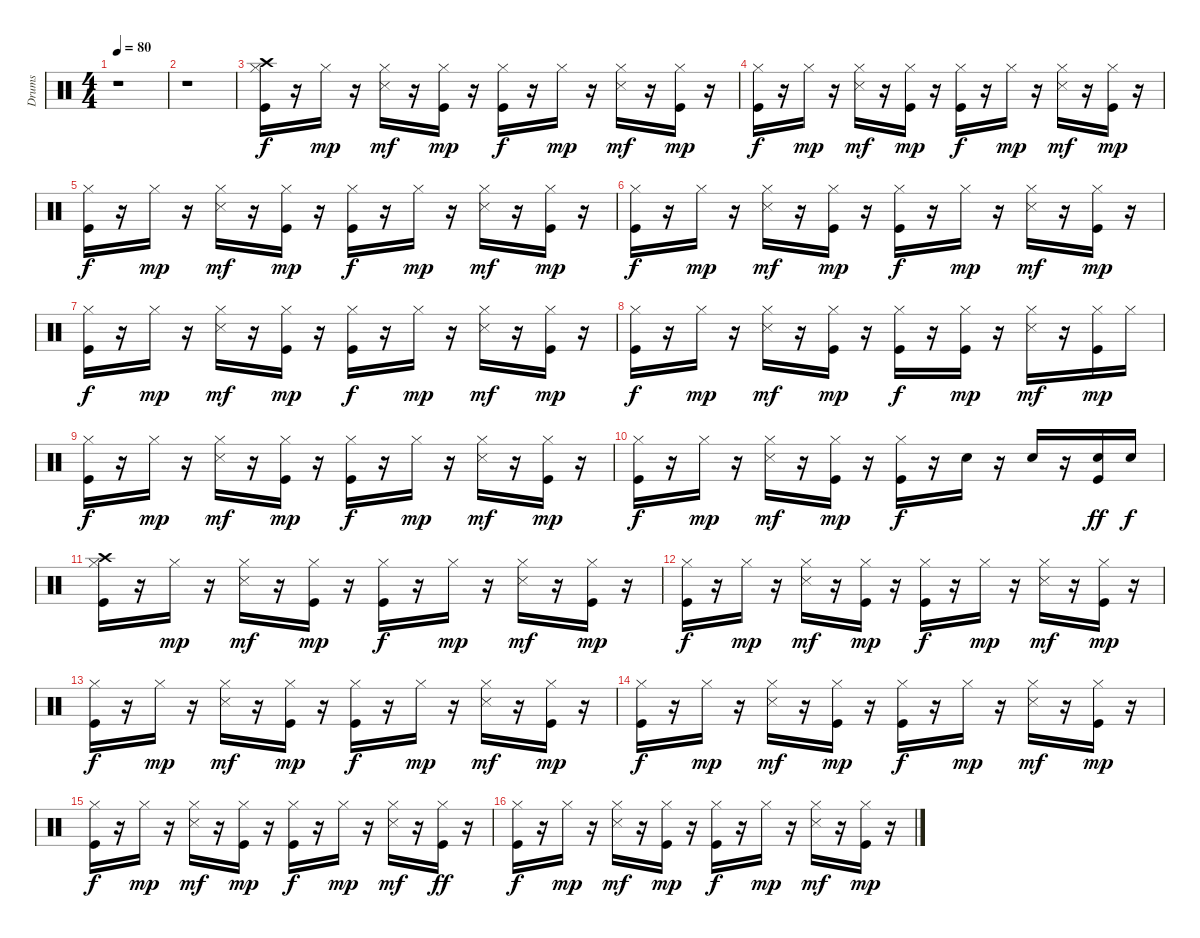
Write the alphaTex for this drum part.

\track ("Drums  " "Drums  ") {instrument percussion}
\staff {score}
\articulation defaults
\ts (4 4)
\tempo 80
\clef neutral
\ks c
r.1{dy f} |
r.1 |
("Kick (hit)" "Hi-Hat (closed)" "Crash high (hit)").16 r.16 "Hi-Hat (closed)".16{dy mp} r.16 ("Hi-Hat (closed)" "Snare (side stick) 3").16{dy mf} r.16 ("Kick (hit)" "Hi-Hat (closed)").16{dy mp} r.16 ("Kick (hit)" "Hi-Hat (closed)").16{dy f} r.16 "Hi-Hat (closed)".16{dy mp} r.16 ("Hi-Hat (closed)" "Snare (side stick) 3").16{dy mf} r.16 ("Kick (hit)" "Hi-Hat (closed)").16{dy mp} r.16 |
("Kick (hit)" "Hi-Hat (closed)").16{dy f} r.16 "Hi-Hat (closed)".16{dy mp} r.16 ("Hi-Hat (closed)" "Snare (side stick) 3").16{dy mf} r.16 ("Kick (hit)" "Hi-Hat (closed)").16{dy mp} r.16 ("Kick (hit)" "Hi-Hat (closed)").16{dy f} r.16 "Hi-Hat (closed)".16{dy mp} r.16 ("Hi-Hat (closed)" "Snare (side stick) 3").16{dy mf} r.16 ("Kick (hit)" "Hi-Hat (closed)").16{dy mp} r.16 |
("Kick (hit)" "Hi-Hat (closed)").16{dy f} r.16 "Hi-Hat (closed)".16{dy mp} r.16 ("Hi-Hat (closed)" "Snare (side stick) 3").16{dy mf} r.16 ("Kick (hit)" "Hi-Hat (closed)").16{dy mp} r.16 ("Kick (hit)" "Hi-Hat (closed)").16{dy f} r.16 "Hi-Hat (closed)".16{dy mp} r.16 ("Hi-Hat (closed)" "Snare (side stick) 3").16{dy mf} r.16 ("Kick (hit)" "Hi-Hat (closed)").16{dy mp} r.16 |
("Kick (hit)" "Hi-Hat (closed)").16{dy f} r.16 "Hi-Hat (closed)".16{dy mp} r.16 ("Hi-Hat (closed)" "Snare (side stick) 3").16{dy mf} r.16 ("Kick (hit)" "Hi-Hat (closed)").16{dy mp} r.16 ("Kick (hit)" "Hi-Hat (closed)").16{dy f} r.16 "Hi-Hat (closed)".16{dy mp} r.16 ("Hi-Hat (closed)" "Snare (side stick) 3").16{dy mf} r.16 ("Kick (hit)" "Hi-Hat (closed)").16{dy mp} r.16 |
("Kick (hit)" "Hi-Hat (closed)").16{dy f} r.16 "Hi-Hat (closed)".16{dy mp} r.16 ("Hi-Hat (closed)" "Snare (side stick) 3").16{dy mf} r.16 ("Kick (hit)" "Hi-Hat (closed)").16{dy mp} r.16 ("Kick (hit)" "Hi-Hat (closed)").16{dy f} r.16 "Hi-Hat (closed)".16{dy mp} r.16 ("Hi-Hat (closed)" "Snare (side stick) 3").16{dy mf} r.16 ("Kick (hit)" "Hi-Hat (closed)").16{dy mp} r.16 |
("Kick (hit)" "Hi-Hat (closed)").16{dy f} r.16 "Hi-Hat (closed)".16{dy mp} r.16 ("Hi-Hat (closed)" "Snare (side stick) 3").16{dy mf} r.16 ("Kick (hit)" "Hi-Hat (closed)").16{dy mp} r.16 ("Kick (hit)" "Hi-Hat (closed)").16{dy f} r.16 ("Kick (hit)" "Hi-Hat (closed)").16{dy mp} r.16 ("Hi-Hat (closed)" "Snare (side stick) 3").16{dy mf} r.16 ("Kick (hit)" "Hi-Hat (closed)").16{dy mp} "Hi-Hat (closed)".16 |
("Kick (hit)" "Hi-Hat (closed)").16{dy f} r.16 "Hi-Hat (closed)".16{dy mp} r.16 ("Hi-Hat (closed)" "Snare (side stick) 3").16{dy mf} r.16 ("Kick (hit)" "Hi-Hat (closed)").16{dy mp} r.16 ("Kick (hit)" "Hi-Hat (closed)").16{dy f} r.16 "Hi-Hat (closed)".16{dy mp} r.16 ("Hi-Hat (closed)" "Snare (side stick) 3").16{dy mf} r.16 ("Kick (hit)" "Hi-Hat (closed)").16{dy mp} r.16 |
("Kick (hit)" "Hi-Hat (closed)").16{dy f} r.16 "Hi-Hat (closed)".16{dy mp} r.16 ("Hi-Hat (closed)" "Snare (side stick) 3").16{dy mf} r.16 ("Kick (hit)" "Hi-Hat (closed)").16{dy mp} r.16 ("Kick (hit)" "Hi-Hat (closed)").16{dy f} r.16 "Snare (hit) 2".16 r.16 "Snare (hit) 2".16 r.16 ("Kick (hit)" "Snare (hit) 2").16{dy ff} "Snare (hit) 2".16{dy f} |
("Kick (hit)" "Hi-Hat (closed)" "Crash high (hit)").16 r.16 "Hi-Hat (closed)".16{dy mp} r.16 ("Hi-Hat (closed)" "Snare (side stick) 3").16{dy mf} r.16 ("Kick (hit)" "Hi-Hat (closed)").16{dy mp} r.16 ("Kick (hit)" "Hi-Hat (closed)").16{dy f} r.16 "Hi-Hat (closed)".16{dy mp} r.16 ("Hi-Hat (closed)" "Snare (side stick) 3").16{dy mf} r.16 ("Kick (hit)" "Hi-Hat (closed)").16{dy mp} r.16 |
("Kick (hit)" "Hi-Hat (closed)").16{dy f} r.16 "Hi-Hat (closed)".16{dy mp} r.16 ("Hi-Hat (closed)" "Snare (side stick) 3").16{dy mf} r.16 ("Kick (hit)" "Hi-Hat (closed)").16{dy mp} r.16 ("Kick (hit)" "Hi-Hat (closed)").16{dy f} r.16 "Hi-Hat (closed)".16{dy mp} r.16 ("Hi-Hat (closed)" "Snare (side stick) 3").16{dy mf} r.16 ("Kick (hit)" "Hi-Hat (closed)").16{dy mp} r.16 |
("Kick (hit)" "Hi-Hat (closed)").16{dy f} r.16 "Hi-Hat (closed)".16{dy mp} r.16 ("Hi-Hat (closed)" "Snare (side stick) 3").16{dy mf} r.16 ("Kick (hit)" "Hi-Hat (closed)").16{dy mp} r.16 ("Kick (hit)" "Hi-Hat (closed)").16{dy f} r.16 "Hi-Hat (closed)".16{dy mp} r.16 ("Hi-Hat (closed)" "Snare (side stick) 3").16{dy mf} r.16 ("Kick (hit)" "Hi-Hat (closed)").16{dy mp} r.16 |
("Kick (hit)" "Hi-Hat (closed)").16{dy f} r.16 "Hi-Hat (closed)".16{dy mp} r.16 ("Hi-Hat (closed)" "Snare (side stick) 3").16{dy mf} r.16 ("Kick (hit)" "Hi-Hat (closed)").16{dy mp} r.16 ("Kick (hit)" "Hi-Hat (closed)").16{dy f} r.16 "Hi-Hat (closed)".16{dy mp} r.16 ("Hi-Hat (closed)" "Snare (side stick) 3").16{dy mf} r.16 ("Kick (hit)" "Hi-Hat (closed)").16{dy mp} r.16 |
("Kick (hit)" "Hi-Hat (closed)").16{dy f} r.16 "Hi-Hat (closed)".16{dy mp} r.16 ("Hi-Hat (closed)" "Snare (side stick) 3").16{dy mf} r.16 ("Kick (hit)" "Hi-Hat (closed)").16{dy mp} r.16 ("Kick (hit)" "Hi-Hat (closed)").16{dy f} r.16 "Hi-Hat (closed)".16{dy mp} r.16 ("Hi-Hat (closed)" "Snare (side stick) 3").16{dy mf} r.16 ("Kick (hit)" "Hi-Hat (closed)").16{dy ff} r.16 |
("Kick (hit)" "Hi-Hat (closed)").16{dy f} r.16 "Hi-Hat (closed)".16{dy mp} r.16 ("Hi-Hat (closed)" "Snare (side stick) 3").16{dy mf} r.16 ("Kick (hit)" "Hi-Hat (closed)").16{dy mp} r.16 ("Kick (hit)" "Hi-Hat (closed)").16{dy f} r.16 "Hi-Hat (closed)".16{dy mp} r.16 ("Hi-Hat (closed)" "Snare (side stick) 3").16{dy mf} r.16 ("Kick (hit)" "Hi-Hat (closed)").16{dy mp} r.16
